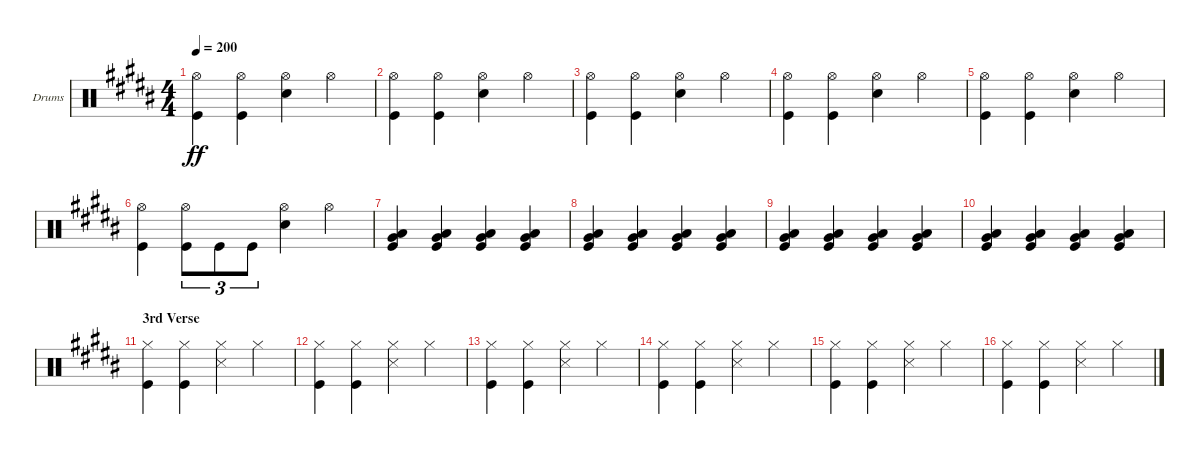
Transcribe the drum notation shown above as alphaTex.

\defaultSystemsLayout 4
\bracketExtendMode groupsimilarinstruments
\firstSystemTrackNameOrientation horizontal
\otherSystemsTrackNameOrientation horizontal
\track ("Drumkit" "Drums") {instrument percussion}
\staff {score}
\articulation defaults
\ts (4 4)
\tempo 200
\clef neutral
\ks b
("Hi-Hat (open)" "Kick (hit)").4{dy ff} ("Hi-Hat (open)" "Kick (hit)").4 ("Hi-Hat (open)" "Snare (hit) 2").4 "Hi-Hat (open)".4 |
("Hi-Hat (open)" "Kick (hit)").4 ("Hi-Hat (open)" "Kick (hit)").4 ("Hi-Hat (open)" "Snare (hit) 2").4 "Hi-Hat (open)".4 |
("Hi-Hat (open)" "Kick (hit)").4 ("Hi-Hat (open)" "Kick (hit)").4 ("Hi-Hat (open)" "Snare (hit) 2").4 "Hi-Hat (open)".4 |
("Hi-Hat (open)" "Kick (hit)").4 ("Hi-Hat (open)" "Kick (hit)").4 ("Hi-Hat (open)" "Snare (hit) 2").4 "Hi-Hat (open)".4 |
("Hi-Hat (open)" "Kick (hit)").4 ("Hi-Hat (open)" "Kick (hit)").4 ("Hi-Hat (open)" "Snare (hit) 2").4 "Hi-Hat (open)".4 |
("Hi-Hat (open)" "Kick (hit)").4 ("Hi-Hat (open)" "Kick (hit)").8{tu (3 2)} "Kick (hit)".8{tu (3 2)} "Kick (hit)".8{tu (3 2)} ("Hi-Hat (open)" "Snare (hit) 2").4 "Hi-Hat (open)".4 |
("Kick (hit)" "Very Low Tom (hit)" "Low Tom (hit)").4 ("Kick (hit)" "Very Low Tom (hit)" "Low Tom (hit)").4 ("Kick (hit)" "Very Low Tom (hit)" "Low Tom (hit)").4 ("Kick (hit)" "Very Low Tom (hit)" "Low Tom (hit)").4 |
("Kick (hit)" "Very Low Tom (hit)" "Low Tom (hit)").4 ("Kick (hit)" "Very Low Tom (hit)" "Low Tom (hit)").4 ("Kick (hit)" "Very Low Tom (hit)" "Low Tom (hit)").4 ("Kick (hit)" "Very Low Tom (hit)" "Low Tom (hit)").4 |
("Kick (hit)" "Very Low Tom (hit)" "Low Tom (hit)").4 ("Kick (hit)" "Very Low Tom (hit)" "Low Tom (hit)").4 ("Kick (hit)" "Very Low Tom (hit)" "Low Tom (hit)").4 ("Kick (hit)" "Very Low Tom (hit)" "Low Tom (hit)").4 |
("Kick (hit)" "Very Low Tom (hit)" "Low Tom (hit)").4 ("Kick (hit)" "Very Low Tom (hit)" "Low Tom (hit)").4 ("Kick (hit)" "Very Low Tom (hit)" "Low Tom (hit)").4 ("Kick (hit)" "Very Low Tom (hit)" "Low Tom (hit)").4 |
\section ("" "3rd Verse")
("Kick (hit)" "Hi-Hat (closed)").4 ("Kick (hit)" "Hi-Hat (closed)").4 ("Snare (side stick) 3" "Hi-Hat (closed)").4 "Hi-Hat (closed)".4 |
("Kick (hit)" "Hi-Hat (closed)").4 ("Kick (hit)" "Hi-Hat (closed)").4 ("Snare (side stick) 3" "Hi-Hat (closed)").4 "Hi-Hat (closed)".4 |
("Kick (hit)" "Hi-Hat (closed)").4 ("Kick (hit)" "Hi-Hat (closed)").4 ("Snare (side stick) 3" "Hi-Hat (closed)").4 "Hi-Hat (closed)".4 |
("Kick (hit)" "Hi-Hat (closed)").4 ("Kick (hit)" "Hi-Hat (closed)").4 ("Snare (side stick) 3" "Hi-Hat (closed)").4 "Hi-Hat (closed)".4 |
("Kick (hit)" "Hi-Hat (closed)").4 ("Kick (hit)" "Hi-Hat (closed)").4 ("Snare (side stick) 3" "Hi-Hat (closed)").4 "Hi-Hat (closed)".4 |
("Kick (hit)" "Hi-Hat (closed)").4 ("Kick (hit)" "Hi-Hat (closed)").4 ("Snare (side stick) 3" "Hi-Hat (closed)").4 "Hi-Hat (closed)".4
